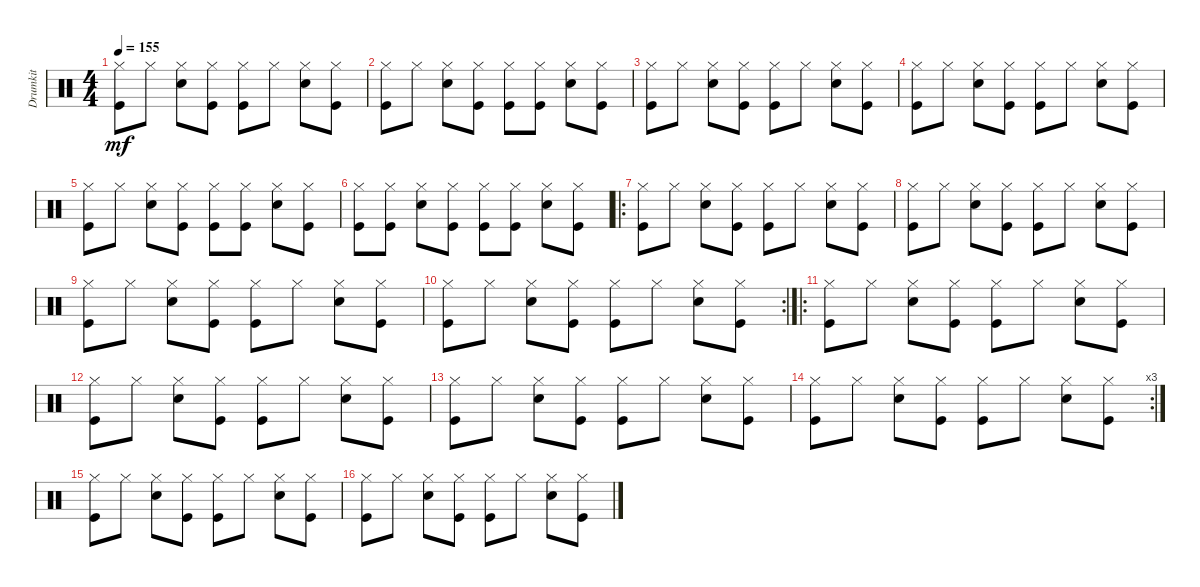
\track ("Drumkit" "Drumkit") {instrument percussion}
\staff {score}
\articulation defaults
\ts (4 4)
\tempo 155
\clef neutral
\ks c
("Hi-Hat (closed)" "Kick (hit)").8{dy mf} "Hi-Hat (closed)".8 ("Hi-Hat (closed)" "Snare (hit) 2").8 ("Hi-Hat (closed)" "Kick (hit)").8 ("Hi-Hat (closed)" "Kick (hit)").8 "Hi-Hat (closed)".8 ("Hi-Hat (closed)" "Snare (hit) 2").8 ("Hi-Hat (closed)" "Kick (hit)").8 |
("Hi-Hat (closed)" "Kick (hit)").8 "Hi-Hat (closed)".8 ("Hi-Hat (closed)" "Snare (hit) 2").8 ("Hi-Hat (closed)" "Kick (hit)").8 ("Hi-Hat (closed)" "Kick (hit)").8 ("Hi-Hat (closed)" "Kick (hit)").8 ("Hi-Hat (closed)" "Snare (hit) 2").8 ("Hi-Hat (closed)" "Kick (hit)").8 |
("Hi-Hat (closed)" "Kick (hit)").8 "Hi-Hat (closed)".8 ("Hi-Hat (closed)" "Snare (hit) 2").8 ("Hi-Hat (closed)" "Kick (hit)").8 ("Hi-Hat (closed)" "Kick (hit)").8 "Hi-Hat (closed)".8 ("Hi-Hat (closed)" "Snare (hit) 2").8 ("Hi-Hat (closed)" "Kick (hit)").8 |
("Hi-Hat (closed)" "Kick (hit)").8 "Hi-Hat (closed)".8 ("Hi-Hat (closed)" "Snare (hit) 2").8 ("Hi-Hat (closed)" "Kick (hit)").8 ("Hi-Hat (closed)" "Kick (hit)").8 "Hi-Hat (closed)".8 ("Hi-Hat (closed)" "Snare (hit) 2").8 ("Hi-Hat (closed)" "Kick (hit)").8 |
("Hi-Hat (closed)" "Kick (hit)").8 "Hi-Hat (closed)".8 ("Hi-Hat (closed)" "Snare (hit) 2").8 ("Hi-Hat (closed)" "Kick (hit)").8 ("Hi-Hat (closed)" "Kick (hit)").8 ("Hi-Hat (closed)" "Kick (hit)").8 ("Hi-Hat (closed)" "Snare (hit) 2").8 ("Hi-Hat (closed)" "Kick (hit)").8 |
("Hi-Hat (closed)" "Kick (hit)").8 ("Hi-Hat (closed)" "Kick (hit)").8 ("Hi-Hat (closed)" "Snare (hit) 2").8 ("Hi-Hat (closed)" "Kick (hit)").8 ("Hi-Hat (closed)" "Kick (hit)").8 ("Hi-Hat (closed)" "Kick (hit)").8 ("Hi-Hat (closed)" "Snare (hit) 2").8 ("Hi-Hat (closed)" "Kick (hit)").8 |
\ro
("Hi-Hat (closed)" "Kick (hit)").8 "Hi-Hat (closed)".8 ("Hi-Hat (closed)" "Snare (hit) 2").8 ("Hi-Hat (closed)" "Kick (hit)").8 ("Hi-Hat (closed)" "Kick (hit)").8 "Hi-Hat (closed)".8 ("Hi-Hat (closed)" "Snare (hit) 2").8 ("Hi-Hat (closed)" "Kick (hit)").8 |
("Hi-Hat (closed)" "Kick (hit)").8 "Hi-Hat (closed)".8 ("Hi-Hat (closed)" "Snare (hit) 2").8 ("Hi-Hat (closed)" "Kick (hit)").8 ("Hi-Hat (closed)" "Kick (hit)").8 "Hi-Hat (closed)".8 ("Hi-Hat (closed)" "Snare (hit) 2").8 ("Hi-Hat (closed)" "Kick (hit)").8 |
("Hi-Hat (closed)" "Kick (hit)").8 "Hi-Hat (closed)".8 ("Hi-Hat (closed)" "Snare (hit) 2").8 ("Hi-Hat (closed)" "Kick (hit)").8 ("Hi-Hat (closed)" "Kick (hit)").8 "Hi-Hat (closed)".8 ("Hi-Hat (closed)" "Snare (hit) 2").8 ("Hi-Hat (closed)" "Kick (hit)").8 |
\rc 2
("Hi-Hat (closed)" "Kick (hit)").8 "Hi-Hat (closed)".8 ("Hi-Hat (closed)" "Snare (hit) 2").8 ("Hi-Hat (closed)" "Kick (hit)").8 ("Hi-Hat (closed)" "Kick (hit)").8 "Hi-Hat (closed)".8 ("Hi-Hat (closed)" "Snare (hit) 2").8 ("Hi-Hat (closed)" "Kick (hit)").8 |
\ro
("Hi-Hat (closed)" "Kick (hit)").8 "Hi-Hat (closed)".8 ("Hi-Hat (closed)" "Snare (hit) 2").8 ("Hi-Hat (closed)" "Kick (hit)").8 ("Hi-Hat (closed)" "Kick (hit)").8 "Hi-Hat (closed)".8 ("Hi-Hat (closed)" "Snare (hit) 2").8 ("Hi-Hat (closed)" "Kick (hit)").8 |
("Hi-Hat (closed)" "Kick (hit)").8 "Hi-Hat (closed)".8 ("Hi-Hat (closed)" "Snare (hit) 2").8 ("Hi-Hat (closed)" "Kick (hit)").8 ("Hi-Hat (closed)" "Kick (hit)").8 "Hi-Hat (closed)".8 ("Hi-Hat (closed)" "Snare (hit) 2").8 ("Hi-Hat (closed)" "Kick (hit)").8 |
("Hi-Hat (closed)" "Kick (hit)").8 "Hi-Hat (closed)".8 ("Hi-Hat (closed)" "Snare (hit) 2").8 ("Hi-Hat (closed)" "Kick (hit)").8 ("Hi-Hat (closed)" "Kick (hit)").8 "Hi-Hat (closed)".8 ("Hi-Hat (closed)" "Snare (hit) 2").8 ("Hi-Hat (closed)" "Kick (hit)").8 |
\rc 3
("Hi-Hat (closed)" "Kick (hit)").8 "Hi-Hat (closed)".8 ("Hi-Hat (closed)" "Snare (hit) 2").8 ("Hi-Hat (closed)" "Kick (hit)").8 ("Hi-Hat (closed)" "Kick (hit)").8 "Hi-Hat (closed)".8 ("Hi-Hat (closed)" "Snare (hit) 2").8 ("Hi-Hat (closed)" "Kick (hit)").8 |
("Hi-Hat (closed)" "Kick (hit)").8 "Hi-Hat (closed)".8 ("Hi-Hat (closed)" "Snare (hit) 2").8 ("Hi-Hat (closed)" "Kick (hit)").8 ("Hi-Hat (closed)" "Kick (hit)").8 "Hi-Hat (closed)".8 ("Hi-Hat (closed)" "Snare (hit) 2").8 ("Hi-Hat (closed)" "Kick (hit)").8 |
("Hi-Hat (closed)" "Kick (hit)").8 "Hi-Hat (closed)".8 ("Hi-Hat (closed)" "Snare (hit) 2").8 ("Hi-Hat (closed)" "Kick (hit)").8 ("Hi-Hat (closed)" "Kick (hit)").8 "Hi-Hat (closed)".8 ("Hi-Hat (closed)" "Snare (hit) 2").8 ("Hi-Hat (closed)" "Kick (hit)").8
